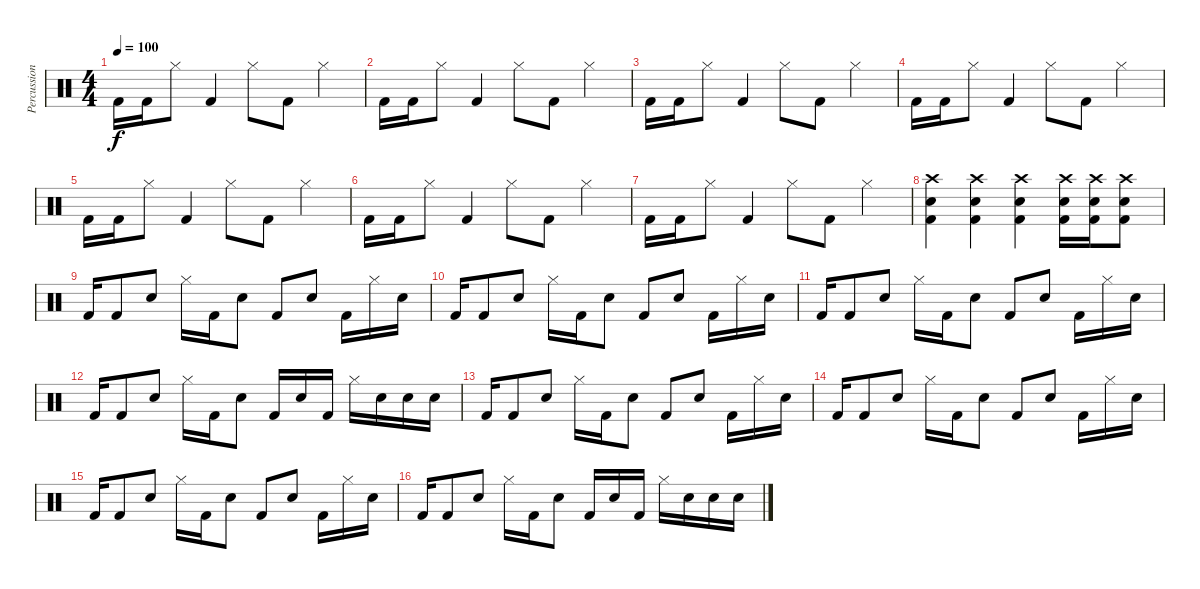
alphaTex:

\track ("Percussion" "Percussion") {instrument percussion}
\staff {score}
\articulation defaults
\ts (4 4)
\tempo 100
\clef neutral
\ks c "Kick (hit) 2".16{dy f} "Kick (hit) 2".16 "Hi-Hat (closed)".8 "Kick (hit) 2".4 "Hi-Hat (closed)".8 "Kick (hit) 2".8 "Hi-Hat (closed)".4
|
"Kick (hit) 2".16 "Kick (hit) 2".16 "Hi-Hat (closed)".8 "Kick (hit) 2".4 "Hi-Hat (closed)".8 "Kick (hit) 2".8 "Hi-Hat (closed)".4 |
"Kick (hit) 2".16 "Kick (hit) 2".16 "Hi-Hat (closed)".8 "Kick (hit) 2".4 "Hi-Hat (closed)".8 "Kick (hit) 2".8 "Hi-Hat (closed)".4 |
"Kick (hit) 2".16 "Kick (hit) 2".16 "Hi-Hat (closed)".8 "Kick (hit) 2".4 "Hi-Hat (closed)".8 "Kick (hit) 2".8 "Hi-Hat (closed)".4 |
"Kick (hit) 2".16 "Kick (hit) 2".16 "Hi-Hat (closed)".8 "Kick (hit) 2".4 "Hi-Hat (closed)".8 "Kick (hit) 2".8 "Hi-Hat (closed)".4 |
"Kick (hit) 2".16 "Kick (hit) 2".16 "Hi-Hat (closed)".8 "Kick (hit) 2".4 "Hi-Hat (closed)".8 "Kick (hit) 2".8 "Hi-Hat (closed)".4 |
"Kick (hit) 2".16 "Kick (hit) 2".16 "Hi-Hat (closed)".8 "Kick (hit) 2".4 "Hi-Hat (closed)".8 "Kick (hit) 2".8 "Hi-Hat (closed)".4 |
("Kick (hit) 2" "Snare (hit) 2" "Crash high (hit)").4 ("Kick (hit) 2" "Snare (hit) 2" "Crash high (hit)").4 ("Kick (hit) 2" "Snare (hit) 2" "Crash high (hit)").4 ("Kick (hit) 2" "Snare (hit) 2" "Crash high (hit)").16 ("Kick (hit) 2" "Snare (hit) 2" "Crash high (hit)").16 ("Kick (hit) 2" "Snare (hit) 2" "Crash high (hit)").8 |
"Kick (hit) 2".16 "Kick (hit) 2".8 "Snare (hit) 2".8 "Hi-Hat (closed)".16 "Kick (hit) 2".16 "Snare (hit) 2".8 "Kick (hit) 2".8 "Snare (hit) 2".8 "Kick (hit) 2".16 "Hi-Hat (closed)".16 "Snare (hit) 2".16 |
"Kick (hit) 2".16 "Kick (hit) 2".8 "Snare (hit) 2".8 "Hi-Hat (closed)".16 "Kick (hit) 2".16 "Snare (hit) 2".8 "Kick (hit) 2".8 "Snare (hit) 2".8 "Kick (hit) 2".16 "Hi-Hat (closed)".16 "Snare (hit) 2".16 |
"Kick (hit) 2".16 "Kick (hit) 2".8 "Snare (hit) 2".8 "Hi-Hat (closed)".16 "Kick (hit) 2".16 "Snare (hit) 2".8 "Kick (hit) 2".8 "Snare (hit) 2".8 "Kick (hit) 2".16 "Hi-Hat (closed)".16 "Snare (hit) 2".16 |
"Kick (hit) 2".16 "Kick (hit) 2".8 "Snare (hit) 2".8 "Hi-Hat (closed)".16 "Kick (hit) 2".16 "Snare (hit) 2".8 "Kick (hit) 2".16 "Snare (hit) 2".16 "Kick (hit) 2".16 "Hi-Hat (closed)".16 "Snare (hit) 2".16 "Snare (hit) 2".16 "Snare (hit) 2".16 |
"Kick (hit) 2".16 "Kick (hit) 2".8 "Snare (hit) 2".8 "Hi-Hat (closed)".16 "Kick (hit) 2".16 "Snare (hit) 2".8 "Kick (hit) 2".8 "Snare (hit) 2".8 "Kick (hit) 2".16 "Hi-Hat (closed)".16 "Snare (hit) 2".16 |
"Kick (hit) 2".16 "Kick (hit) 2".8 "Snare (hit) 2".8 "Hi-Hat (closed)".16 "Kick (hit) 2".16 "Snare (hit) 2".8 "Kick (hit) 2".8 "Snare (hit) 2".8 "Kick (hit) 2".16 "Hi-Hat (closed)".16 "Snare (hit) 2".16 |
"Kick (hit) 2".16 "Kick (hit) 2".8 "Snare (hit) 2".8 "Hi-Hat (closed)".16 "Kick (hit) 2".16 "Snare (hit) 2".8 "Kick (hit) 2".8 "Snare (hit) 2".8 "Kick (hit) 2".16 "Hi-Hat (closed)".16 "Snare (hit) 2".16 |
"Kick (hit) 2".16 "Kick (hit) 2".8 "Snare (hit) 2".8 "Hi-Hat (closed)".16 "Kick (hit) 2".16 "Snare (hit) 2".8 "Kick (hit) 2".16 "Snare (hit) 2".16 "Kick (hit) 2".16 "Hi-Hat (closed)".16 "Snare (hit) 2".16 "Snare (hit) 2".16 "Snare (hit) 2".16
